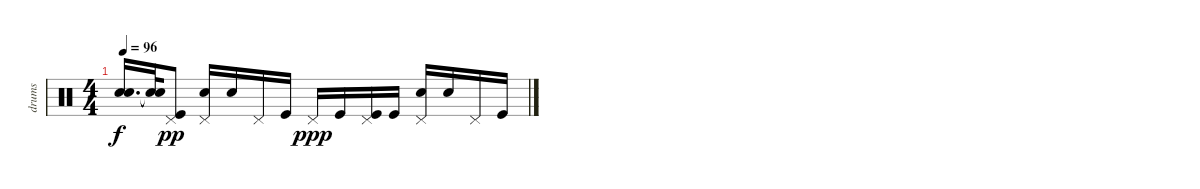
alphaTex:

\track ("drums" "drums") {instrument percussion}
\staff {score}
\articulation defaults
\ts (4 4)
\tempo 96
\clef neutral
\ks c
("Snare (hit)"{t} "Snare (hit)"{t}).16{d dy f} ("Snare (hit)"{t} "Snare (hit)"{t}).32 ("Pedal Hi-Hat (hit)" "Kick (hit)").8{dy pp} ("Pedal Hi-Hat (hit)" "Snare (hit) 2").16 "Snare (hit) 2".16 "Pedal Hi-Hat (hit)".16 "Kick (hit)".16 "Pedal Hi-Hat (hit)".16{dy ppp} "Kick (hit)".16 ("Pedal Hi-Hat (hit)" "Kick (hit)").16 "Kick (hit)".16 ("Pedal Hi-Hat (hit)" "Snare (hit) 2").16 "Snare (hit) 2".16 "Pedal Hi-Hat (hit)".16 "Kick (hit)".16
